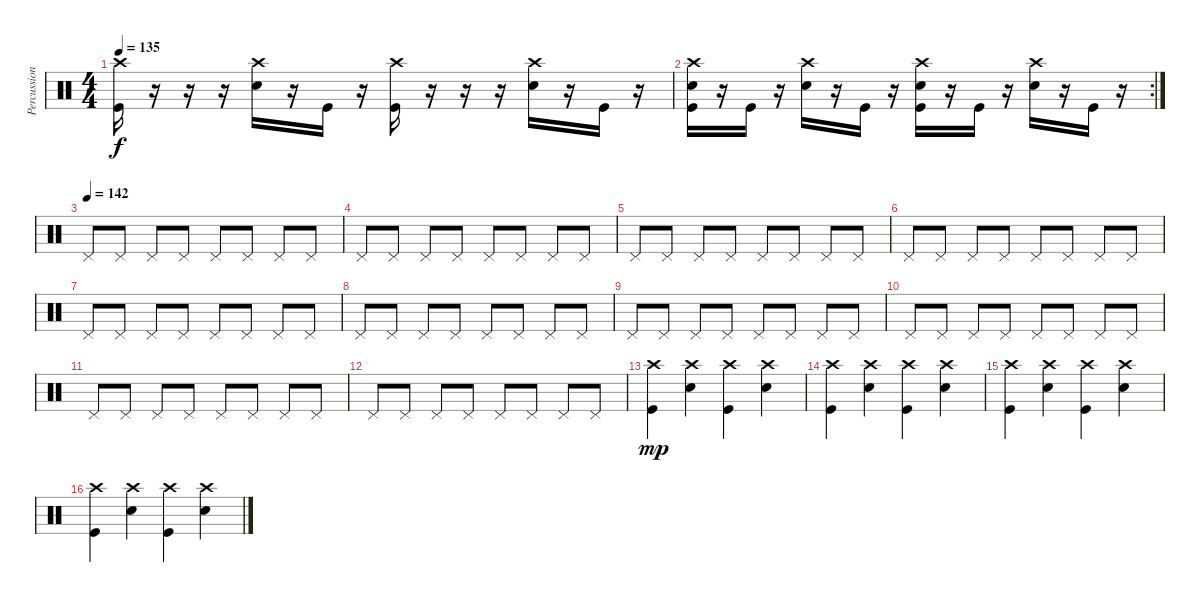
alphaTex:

\track ("Percussion" "Percussion") {instrument percussion}
\staff {score}
\articulation defaults
\ts (4 4)
\tempo 135
\clef neutral
\ks c
("Crash high (hit)" "Kick (hit)").16{dy f} r.16 r.16 r.16 ("Crash high (hit)" "Snare (hit) 2").16 r.16 "Kick (hit)".16 r.16 ("Crash high (hit)" "Kick (hit)").16 r.16 r.16 r.16 ("Crash high (hit)" "Snare (hit) 2").16 r.16 "Kick (hit)".16 r.16 |
\rc 2
("Crash high (hit)" "Snare (hit) 2" "Kick (hit)").16 r.16 "Kick (hit)".16 r.16 ("Crash high (hit)" "Snare (hit) 2").16 r.16 "Kick (hit)".16 r.16 ("Crash high (hit)" "Snare (hit) 2" "Kick (hit)").16 r.16 "Kick (hit)".16 r.16 ("Crash high (hit)" "Snare (hit) 2").16 r.16 "Kick (hit)".16 r.16 |
\tempo (142)
"Pedal Hi-Hat (hit)".8 "Pedal Hi-Hat (hit)".8 "Pedal Hi-Hat (hit)".8 "Pedal Hi-Hat (hit)".8 "Pedal Hi-Hat (hit)".8 "Pedal Hi-Hat (hit)".8 "Pedal Hi-Hat (hit)".8 "Pedal Hi-Hat (hit)".8 |
"Pedal Hi-Hat (hit)".8 "Pedal Hi-Hat (hit)".8 "Pedal Hi-Hat (hit)".8 "Pedal Hi-Hat (hit)".8 "Pedal Hi-Hat (hit)".8 "Pedal Hi-Hat (hit)".8 "Pedal Hi-Hat (hit)".8 "Pedal Hi-Hat (hit)".8 |
"Pedal Hi-Hat (hit)".8 "Pedal Hi-Hat (hit)".8 "Pedal Hi-Hat (hit)".8 "Pedal Hi-Hat (hit)".8 "Pedal Hi-Hat (hit)".8 "Pedal Hi-Hat (hit)".8 "Pedal Hi-Hat (hit)".8 "Pedal Hi-Hat (hit)".8 |
"Pedal Hi-Hat (hit)".8 "Pedal Hi-Hat (hit)".8 "Pedal Hi-Hat (hit)".8 "Pedal Hi-Hat (hit)".8 "Pedal Hi-Hat (hit)".8 "Pedal Hi-Hat (hit)".8 "Pedal Hi-Hat (hit)".8 "Pedal Hi-Hat (hit)".8 |
"Pedal Hi-Hat (hit)".8 "Pedal Hi-Hat (hit)".8 "Pedal Hi-Hat (hit)".8 "Pedal Hi-Hat (hit)".8 "Pedal Hi-Hat (hit)".8 "Pedal Hi-Hat (hit)".8 "Pedal Hi-Hat (hit)".8 "Pedal Hi-Hat (hit)".8 |
"Pedal Hi-Hat (hit)".8 "Pedal Hi-Hat (hit)".8 "Pedal Hi-Hat (hit)".8 "Pedal Hi-Hat (hit)".8 "Pedal Hi-Hat (hit)".8 "Pedal Hi-Hat (hit)".8 "Pedal Hi-Hat (hit)".8 "Pedal Hi-Hat (hit)".8 |
"Pedal Hi-Hat (hit)".8 "Pedal Hi-Hat (hit)".8 "Pedal Hi-Hat (hit)".8 "Pedal Hi-Hat (hit)".8 "Pedal Hi-Hat (hit)".8 "Pedal Hi-Hat (hit)".8 "Pedal Hi-Hat (hit)".8 "Pedal Hi-Hat (hit)".8 |
"Pedal Hi-Hat (hit)".8 "Pedal Hi-Hat (hit)".8 "Pedal Hi-Hat (hit)".8 "Pedal Hi-Hat (hit)".8 "Pedal Hi-Hat (hit)".8 "Pedal Hi-Hat (hit)".8 "Pedal Hi-Hat (hit)".8 "Pedal Hi-Hat (hit)".8 |
"Pedal Hi-Hat (hit)".8 "Pedal Hi-Hat (hit)".8 "Pedal Hi-Hat (hit)".8 "Pedal Hi-Hat (hit)".8 "Pedal Hi-Hat (hit)".8 "Pedal Hi-Hat (hit)".8 "Pedal Hi-Hat (hit)".8 "Pedal Hi-Hat (hit)".8 |
"Pedal Hi-Hat (hit)".8 "Pedal Hi-Hat (hit)".8 "Pedal Hi-Hat (hit)".8 "Pedal Hi-Hat (hit)".8 "Pedal Hi-Hat (hit)".8 "Pedal Hi-Hat (hit)".8 "Pedal Hi-Hat (hit)".8 "Pedal Hi-Hat (hit)".8 |
("Crash high (hit)" "Kick (hit)").4{dy mp} ("Crash high (hit)" "Snare (hit) 2").4 ("Crash high (hit)" "Kick (hit)").4 ("Crash high (hit)" "Snare (hit) 2").4 |
("Crash high (hit)" "Kick (hit)").4 ("Crash high (hit)" "Snare (hit) 2").4 ("Crash high (hit)" "Kick (hit)").4 ("Crash high (hit)" "Snare (hit) 2").4 |
("Crash high (hit)" "Kick (hit)").4 ("Crash high (hit)" "Snare (hit) 2").4 ("Crash high (hit)" "Kick (hit)").4 ("Crash high (hit)" "Snare (hit) 2").4 |
("Crash high (hit)" "Kick (hit)").4 ("Crash high (hit)" "Snare (hit) 2").4 ("Crash high (hit)" "Kick (hit)").4 ("Crash high (hit)" "Snare (hit) 2").4
